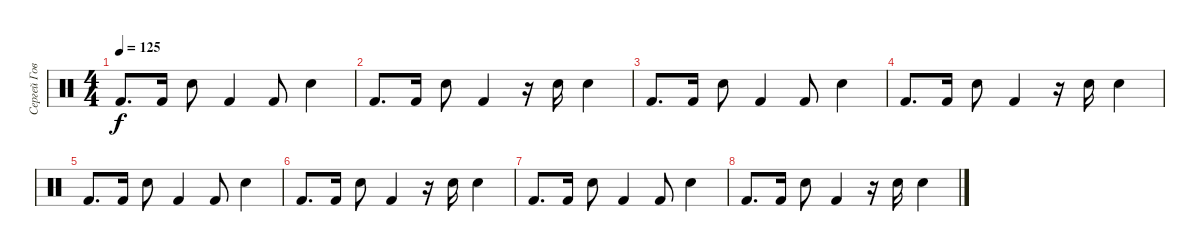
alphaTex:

\track ("Сергей Говорун" "Сергей Гов") {instrument percussion}
\staff {score}
\articulation defaults
\ts (4 4)
\tempo 125
\clef neutral
\ks c "Kick (hit) 2".8{d dy f} "Kick (hit) 2".16 "Electric Snare (hit)".8 "Kick (hit) 2".4 "Kick (hit) 2".8 "Electric Snare (hit)".4
|
"Kick (hit) 2".8{d} "Kick (hit) 2".16 "Electric Snare (hit)".8 "Kick (hit) 2".4 r.16 "Electric Snare (hit)".16 "Electric Snare (hit)".4 |
"Kick (hit) 2".8{d} "Kick (hit) 2".16 "Electric Snare (hit)".8 "Kick (hit) 2".4 "Kick (hit) 2".8 "Electric Snare (hit)".4 |
"Kick (hit) 2".8{d} "Kick (hit) 2".16 "Electric Snare (hit)".8 "Kick (hit) 2".4 r.16 "Electric Snare (hit)".16 "Electric Snare (hit)".4 |
"Kick (hit) 2".8{d} "Kick (hit) 2".16 "Electric Snare (hit)".8 "Kick (hit) 2".4 "Kick (hit) 2".8 "Electric Snare (hit)".4 |
"Kick (hit) 2".8{d} "Kick (hit) 2".16 "Electric Snare (hit)".8 "Kick (hit) 2".4 r.16 "Electric Snare (hit)".16 "Electric Snare (hit)".4 |
"Kick (hit) 2".8{d} "Kick (hit) 2".16 "Electric Snare (hit)".8 "Kick (hit) 2".4 "Kick (hit) 2".8 "Electric Snare (hit)".4 |
"Kick (hit) 2".8{d} "Kick (hit) 2".16 "Electric Snare (hit)".8 "Kick (hit) 2".4 r.16 "Electric Snare (hit)".16 "Electric Snare (hit)".4
